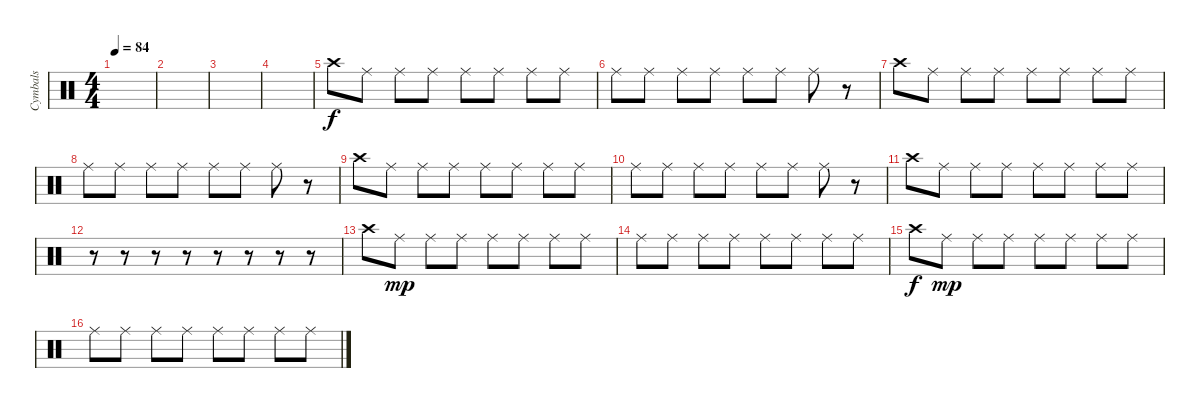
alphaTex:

\track ("Cymbals" "Cymbals") {instrument percussion}
\staff {score}
\articulation defaults
\ts (4 4)
\tempo 84
\clef neutral
\ks c
|
|
|
|
"Crash high (hit)".8 "Ride (middle)".8 "Ride (middle)".8 "Ride (middle)".8 "Ride (middle)".8 "Ride (middle)".8 "Ride (middle)".8 "Ride (middle)".8 |
"Ride (middle)".8 "Ride (middle)".8 "Ride (middle)".8 "Ride (middle)".8 "Ride (middle)".8 "Ride (middle)".8 "Ride (middle)".8 r.8 |
"Crash high (hit)".8 "Ride (middle)".8 "Ride (middle)".8 "Ride (middle)".8 "Ride (middle)".8 "Ride (middle)".8 "Ride (middle)".8 "Ride (middle)".8 |
"Ride (middle)".8 "Ride (middle)".8 "Ride (middle)".8 "Ride (middle)".8 "Ride (middle)".8 "Ride (middle)".8 "Ride (middle)".8 r.8 |
"Crash high (hit)".8 "Ride (middle)".8 "Ride (middle)".8 "Ride (middle)".8 "Ride (middle)".8 "Ride (middle)".8 "Ride (middle)".8 "Ride (middle)".8 |
"Ride (middle)".8 "Ride (middle)".8 "Ride (middle)".8 "Ride (middle)".8 "Ride (middle)".8 "Ride (middle)".8 "Ride (middle)".8 r.8 |
"Crash high (hit)".8 "Ride (middle)".8 "Ride (middle)".8 "Ride (middle)".8 "Ride (middle)".8 "Ride (middle)".8 "Ride (middle)".8 "Ride (middle)".8 |
r.8 r.8 r.8 r.8 r.8 r.8 r.8 r.8 |
"Crash high (hit)".8 "Ride (middle)".8{dy mp} "Ride (middle)".8 "Ride (middle)".8 "Ride (middle)".8 "Ride (middle)".8 "Ride (middle)".8 "Ride (middle)".8 |
"Ride (middle)".8 "Ride (middle)".8 "Ride (middle)".8 "Ride (middle)".8 "Ride (middle)".8 "Ride (middle)".8 "Ride (middle)".8 "Ride (middle)".8 |
"Crash high (hit)".8{dy f} "Ride (middle)".8{dy mp} "Ride (middle)".8 "Ride (middle)".8 "Ride (middle)".8 "Ride (middle)".8 "Ride (middle)".8 "Ride (middle)".8 |
"Ride (middle)".8 "Ride (middle)".8 "Ride (middle)".8 "Ride (middle)".8 "Ride (middle)".8 "Ride (middle)".8 "Ride (middle)".8 "Ride (middle)".8
